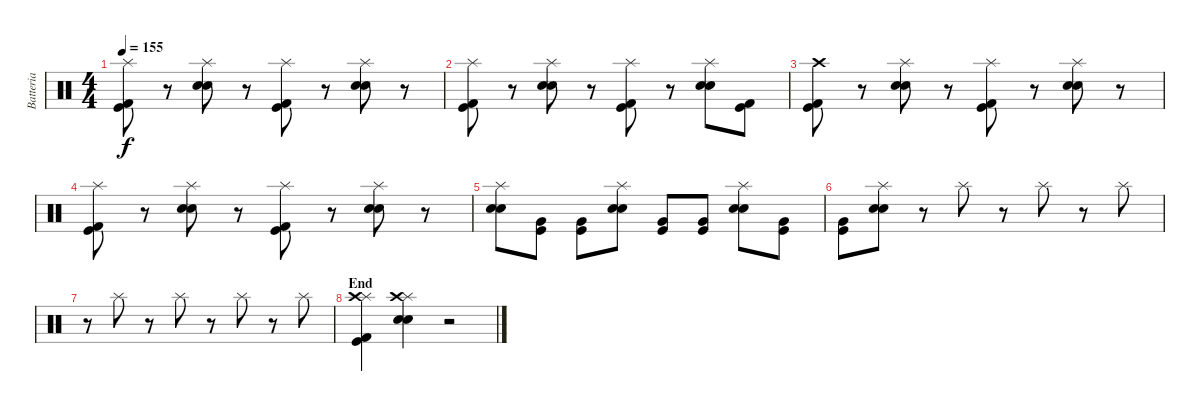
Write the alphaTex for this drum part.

\track ("Batteria" "Batteria") {instrument percussion}
\staff {score}
\articulation defaults
\ts (4 4)
\tempo 155
\clef neutral
\ks c
("Kick (hit)" "Kick (hit) 2" "Splash (hit)").8{dy f} r.8 ("Electric Snare (hit)" "Snare (hit) 2" "Splash (hit)").8 r.8 ("Kick (hit)" "Kick (hit) 2" "Splash (hit)").8 r.8 ("Electric Snare (hit)" "Snare (hit) 2" "Splash (hit)").8 r.8 |
("Kick (hit)" "Kick (hit) 2" "Splash (hit)").8 r.8 ("Electric Snare (hit)" "Snare (hit) 2" "Splash (hit)").8 r.8 ("Kick (hit)" "Kick (hit) 2" "Splash (hit)").8 r.8 ("Electric Snare (hit)" "Snare (hit) 2" "Splash (hit)").8 ("Kick (hit)" "Kick (hit) 2").8 |
("Kick (hit)" "Kick (hit) 2" "Crash high (hit)").8 r.8 ("Electric Snare (hit)" "Snare (hit) 2" "Splash (hit)").8 r.8 ("Kick (hit)" "Kick (hit) 2" "Splash (hit)").8 r.8 ("Electric Snare (hit)" "Snare (hit) 2" "Splash (hit)").8 r.8 |
("Kick (hit)" "Kick (hit) 2" "Splash (hit)").8 r.8 ("Electric Snare (hit)" "Snare (hit) 2" "Splash (hit)").8 r.8 ("Kick (hit)" "Kick (hit) 2" "Splash (hit)").8 r.8 ("Electric Snare (hit)" "Snare (hit) 2" "Splash (hit)").8 r.8 |
("Electric Snare (hit)" "Snare (hit) 2" "Splash (hit)").8 ("Kick (hit)" "Very Low Tom (hit)").8 ("Kick (hit)" "Very Low Tom (hit)").8 ("Electric Snare (hit)" "Snare (hit) 2" "Splash (hit)").8 ("Kick (hit)" "Very Low Tom (hit)").8 ("Kick (hit)" "Very Low Tom (hit)").8 ("Electric Snare (hit)" "Snare (hit) 2" "Splash (hit)").8 ("Kick (hit)" "Very Low Tom (hit)").8 |
("Kick (hit)" "Very Low Tom (hit)").8 ("Electric Snare (hit)" "Snare (hit) 2" "Splash (hit)").8 r.8 "Splash (hit)".8 r.8 "Splash (hit)".8 r.8 "Splash (hit)".8 |
r.8 "Splash (hit)".8 r.8 "Splash (hit)".8 r.8 "Splash (hit)".8 r.8 "Splash (hit)".8 |
\section ("" "End")
("Kick (hit)" "Kick (hit) 2" "Splash (hit)" "Crash high (hit)").4 ("Electric Snare (hit)" "Snare (hit) 2" "Splash (hit)" "Crash high (hit)").4 r.2
